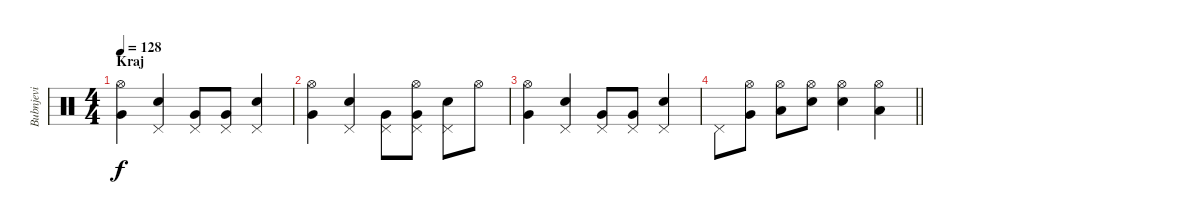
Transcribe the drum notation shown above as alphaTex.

\track ("Bubnjevi" "Bubnjevi") {instrument percussion}
\staff {score}
\articulation defaults
\ts (4 4)
\section ("" "Kraj")
\tempo 128
\clef neutral
\ks c
("Hi-Hat (open)" "Very Low Tom (hit)").4{dy f} ("Pedal Hi-Hat (hit)" "Electric Snare (hit)").4 ("Pedal Hi-Hat (hit)" "Very Low Tom (hit)").8 ("Pedal Hi-Hat (hit)" "Very Low Tom (hit)").8 ("Pedal Hi-Hat (hit)" "Electric Snare (hit)").4 |
("Hi-Hat (open)" "Very Low Tom (hit)").4 ("Pedal Hi-Hat (hit)" "Electric Snare (hit)").4 ("Pedal Hi-Hat (hit)" "Very Low Tom (hit)").8 ("Pedal Hi-Hat (hit)" "Hi-Hat (open)" "Very Low Tom (hit)").8 ("Pedal Hi-Hat (hit)" "Electric Snare (hit)").8 "Hi-Hat (open)".8 |
("Hi-Hat (open)" "Very Low Tom (hit)").4 ("Pedal Hi-Hat (hit)" "Electric Snare (hit)").4 ("Pedal Hi-Hat (hit)" "Very Low Tom (hit)").8 ("Pedal Hi-Hat (hit)" "Very Low Tom (hit)").8 ("Pedal Hi-Hat (hit)" "Electric Snare (hit)").4 |
\barLineRight lightlight "Pedal Hi-Hat (hit)".8
("Hi-Hat (open)" "Very Low Tom (hit)").8 ("Hi-Hat (open)" "Low Tom (hit)").8 ("Hi-Hat (open)" "Electric Snare (hit)").8 ("Hi-Hat (open)" "Electric Snare (hit)").4 ("Hi-Hat (open)" "Low Tom (hit)").4
